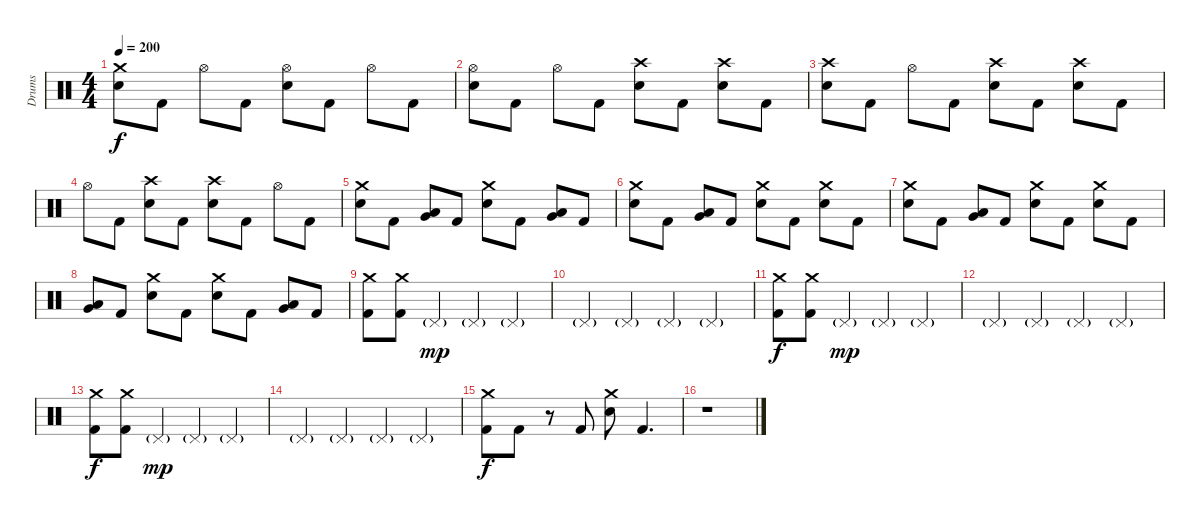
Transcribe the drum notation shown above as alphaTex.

\track ("Drums" "Drums") {instrument percussion}
\staff {score}
\articulation defaults
\ts (4 4)
\tempo 200
\clef neutral
\ks c
("Crash medium (hit)" "Electric Snare (hit)").8{dy f} "Kick (hit) 2".8 "Hi-Hat (open)".8 "Kick (hit) 2".8 ("Hi-Hat (open)" "Electric Snare (hit)").8 "Kick (hit) 2".8 "Hi-Hat (open)".8 "Kick (hit) 2".8 |
("Hi-Hat (open)" "Electric Snare (hit)").8 "Kick (hit) 2".8 "Hi-Hat (open)".8 "Kick (hit) 2".8 ("Crash high (hit)" "Electric Snare (hit)").8 "Kick (hit) 2".8 ("Crash high (hit)" "Electric Snare (hit)").8 "Kick (hit) 2".8 |
("Crash high (hit)" "Electric Snare (hit)").8 "Kick (hit) 2".8 "Hi-Hat (open)".8 "Kick (hit) 2".8 ("Crash high (hit)" "Electric Snare (hit)").8 "Kick (hit) 2".8 ("Crash high (hit)" "Electric Snare (hit)").8 "Kick (hit) 2".8 |
"Hi-Hat (open)".8 "Kick (hit) 2".8 ("Crash high (hit)" "Electric Snare (hit)").8 "Kick (hit) 2".8 ("Crash high (hit)" "Electric Snare (hit)").8 "Kick (hit) 2".8 "Hi-Hat (open)".8 "Kick (hit) 2".8 |
("Crash medium (hit)" "Electric Snare (hit)").8 "Kick (hit) 2".8 ("Very Low Tom (hit)" "Low Tom (hit)").8 "Kick (hit) 2".8 ("Crash medium (hit)" "Electric Snare (hit)").8 "Kick (hit) 2".8 ("Very Low Tom (hit)" "Low Tom (hit)").8 "Kick (hit) 2".8 |
("Crash medium (hit)" "Electric Snare (hit)").8 "Kick (hit) 2".8 ("Very Low Tom (hit)" "Low Tom (hit)").8 "Kick (hit) 2".8 ("Crash medium (hit)" "Electric Snare (hit)").8 "Kick (hit) 2".8 ("Crash medium (hit)" "Electric Snare (hit)").8 "Kick (hit) 2".8 |
("Crash medium (hit)" "Electric Snare (hit)").8 "Kick (hit) 2".8 ("Very Low Tom (hit)" "Low Tom (hit)").8 "Kick (hit) 2".8 ("Crash medium (hit)" "Electric Snare (hit)").8 "Kick (hit) 2".8 ("Crash medium (hit)" "Electric Snare (hit)").8 "Kick (hit) 2".8 |
("Very Low Tom (hit)" "Low Tom (hit)").8 "Kick (hit) 2".8 ("Crash medium (hit)" "Electric Snare (hit)").8 "Kick (hit) 2".8 ("Crash medium (hit)" "Electric Snare (hit)").8 "Kick (hit) 2".8 ("Very Low Tom (hit)" "Low Tom (hit)").8 "Kick (hit) 2".8 |
("Crash medium (hit)" "Kick (hit) 2").8 ("Crash medium (hit)" "Kick (hit) 2").8 "Pedal Hi-Hat (hit)"{g}.4{dy mp} "Pedal Hi-Hat (hit)"{g}.4 "Pedal Hi-Hat (hit)"{g}.4 |
"Pedal Hi-Hat (hit)"{g}.4 "Pedal Hi-Hat (hit)"{g}.4 "Pedal Hi-Hat (hit)"{g}.4 "Pedal Hi-Hat (hit)"{g}.4 |
("Crash medium (hit)" "Kick (hit) 2").8{dy f} ("Crash medium (hit)" "Kick (hit) 2").8 "Pedal Hi-Hat (hit)"{g}.4{dy mp} "Pedal Hi-Hat (hit)"{g}.4 "Pedal Hi-Hat (hit)"{g}.4 |
"Pedal Hi-Hat (hit)"{g}.4 "Pedal Hi-Hat (hit)"{g}.4 "Pedal Hi-Hat (hit)"{g}.4 "Pedal Hi-Hat (hit)"{g}.4 |
("Crash medium (hit)" "Kick (hit) 2").8{dy f} ("Crash medium (hit)" "Kick (hit) 2").8 "Pedal Hi-Hat (hit)"{g}.4{dy mp} "Pedal Hi-Hat (hit)"{g}.4 "Pedal Hi-Hat (hit)"{g}.4 |
"Pedal Hi-Hat (hit)"{g}.4 "Pedal Hi-Hat (hit)"{g}.4 "Pedal Hi-Hat (hit)"{g}.4 "Pedal Hi-Hat (hit)"{g}.4 |
("Crash medium (hit)" "Kick (hit) 2").8{dy f} "Kick (hit) 2".8 r.8 "Kick (hit) 2".8 ("Crash medium (hit)" "Electric Snare (hit)").8 "Kick (hit) 2".4{d} |
r.1
